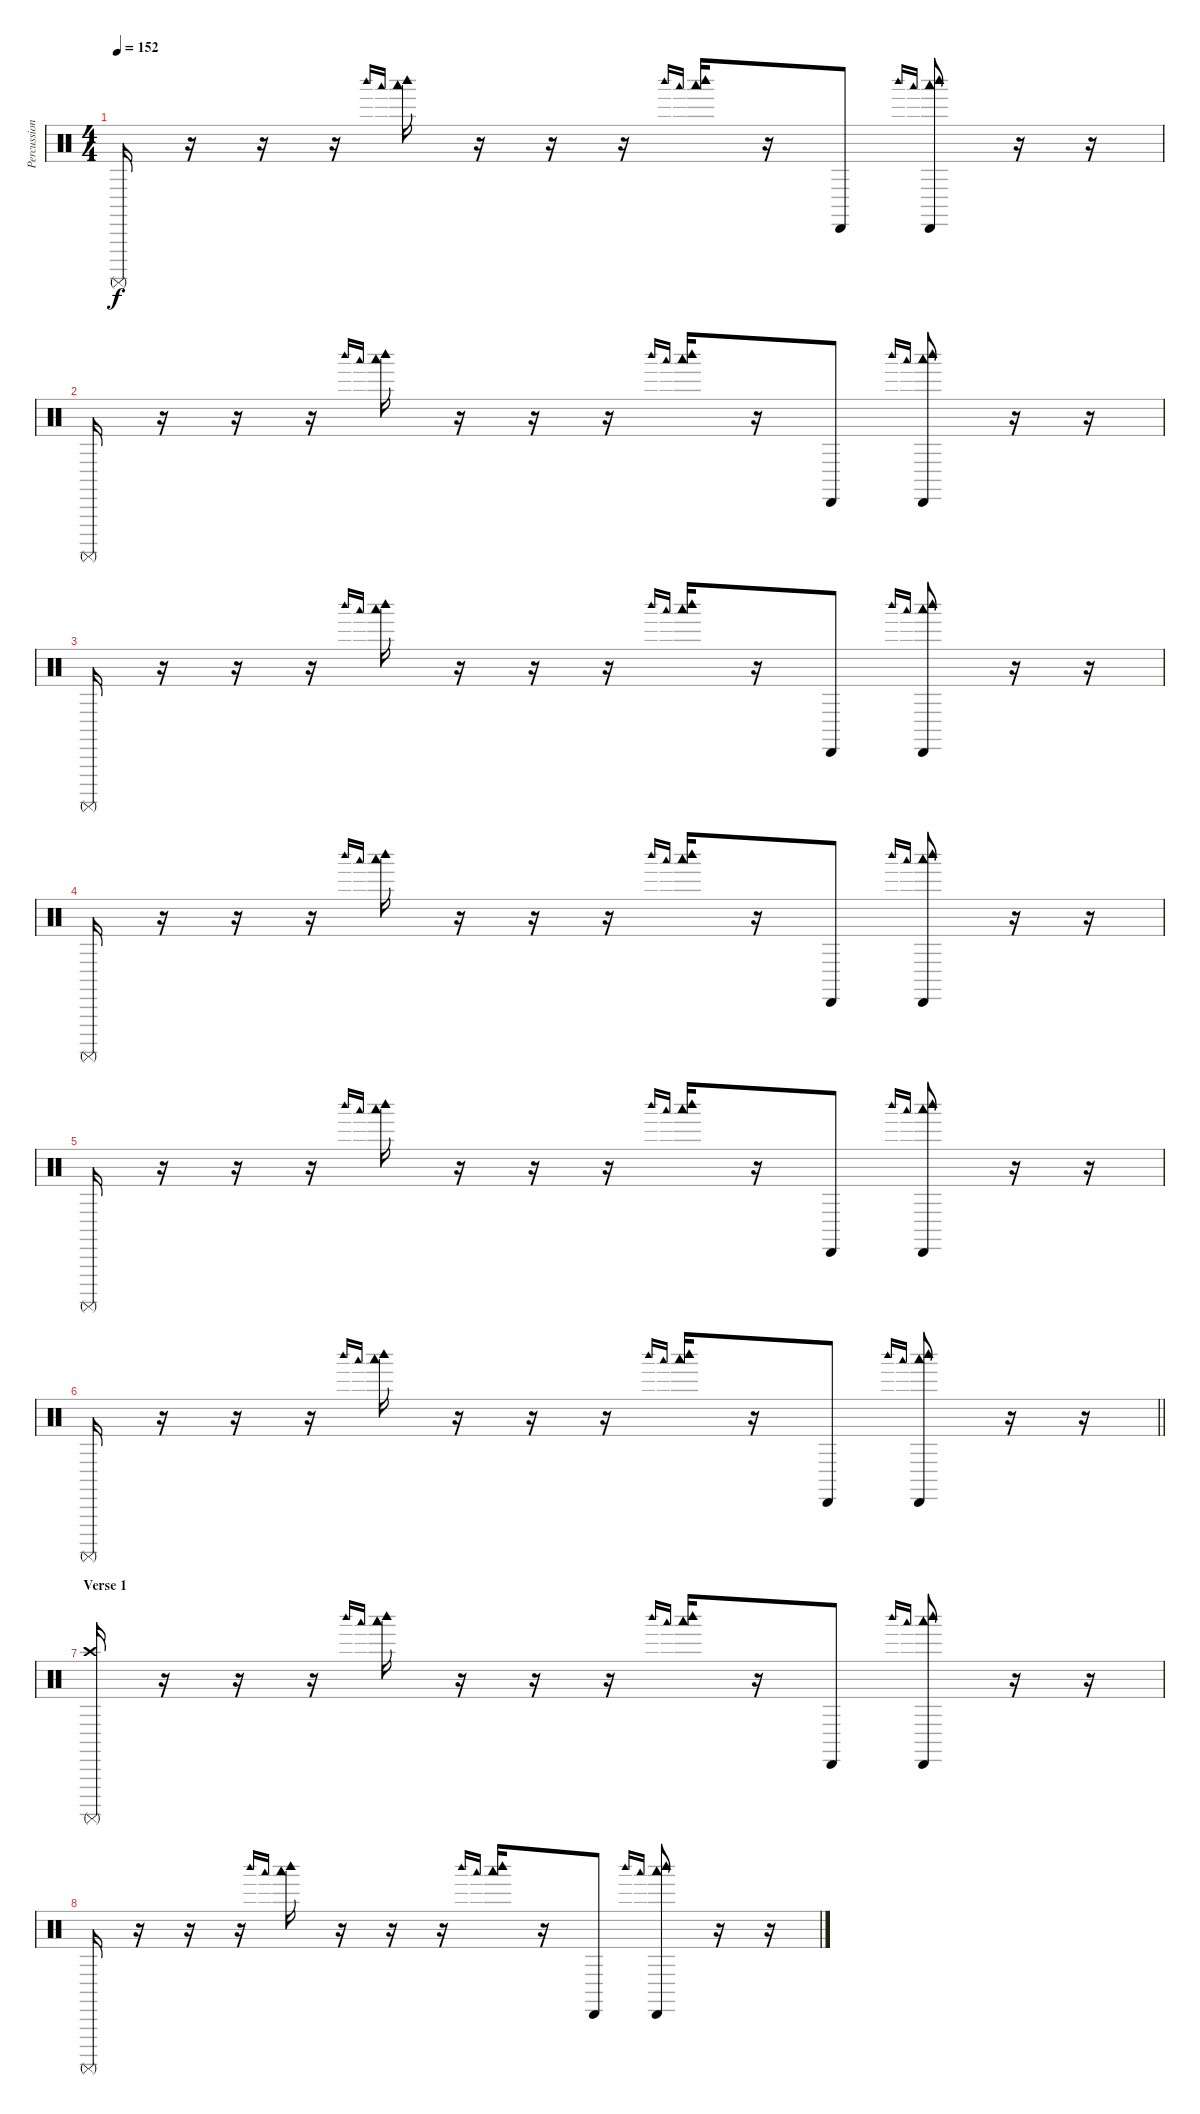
\track ("Percussion" "Percussion") {instrument percussion}
\staff {score}
\articulation defaults
\ts (4 4)
\tempo 152
\clef neutral
\ks c "Surdo (mute)".16{dy f}
r.16 r.16 r.16 "Woodblock high (hit)".16{gr onbeat} "Woodblock low (hit)".16{gr onbeat} ("Woodblock high (hit)" "Woodblock low (hit)").16 r.16 r.16 r.16 "Woodblock high (hit)".16{gr onbeat} "Woodblock low (hit)".16{gr onbeat} ("Woodblock high (hit)" "Woodblock low (hit)").16 r.16 "Cabasa (hit)".8 "Woodblock high (hit)".16{gr onbeat} "Woodblock low (hit)".16{gr onbeat} ("Cabasa (hit)" "Woodblock high (hit)" "Woodblock low (hit)").8 r.16 r.16 |
"Surdo (mute)".16 r.16 r.16 r.16 "Woodblock high (hit)".16{gr onbeat} "Woodblock low (hit)".16{gr onbeat} ("Woodblock high (hit)" "Woodblock low (hit)").16 r.16 r.16 r.16 "Woodblock high (hit)".16{gr onbeat} "Woodblock low (hit)".16{gr onbeat} ("Woodblock high (hit)" "Woodblock low (hit)").16 r.16 "Cabasa (hit)".8 "Woodblock high (hit)".16{gr onbeat} "Woodblock low (hit)".16{gr onbeat} ("Cabasa (hit)" "Woodblock high (hit)" "Woodblock low (hit)").8 r.16 r.16 |
"Surdo (mute)".16 r.16 r.16 r.16 "Woodblock high (hit)".16{gr onbeat} "Woodblock low (hit)".16{gr onbeat} ("Woodblock high (hit)" "Woodblock low (hit)").16 r.16 r.16 r.16 "Woodblock high (hit)".16{gr onbeat} "Woodblock low (hit)".16{gr onbeat} ("Woodblock high (hit)" "Woodblock low (hit)").16 r.16 "Cabasa (hit)".8 "Woodblock high (hit)".16{gr onbeat} "Woodblock low (hit)".16{gr onbeat} ("Cabasa (hit)" "Woodblock high (hit)" "Woodblock low (hit)").8 r.16 r.16 |
"Surdo (mute)".16 r.16 r.16 r.16 "Woodblock high (hit)".16{gr onbeat} "Woodblock low (hit)".16{gr onbeat} ("Woodblock high (hit)" "Woodblock low (hit)").16 r.16 r.16 r.16 "Woodblock high (hit)".16{gr onbeat} "Woodblock low (hit)".16{gr onbeat} ("Woodblock high (hit)" "Woodblock low (hit)").16 r.16 "Cabasa (hit)".8 "Woodblock high (hit)".16{gr onbeat} "Woodblock low (hit)".16{gr onbeat} ("Cabasa (hit)" "Woodblock high (hit)" "Woodblock low (hit)").8 r.16 r.16 |
"Surdo (mute)".16 r.16 r.16 r.16 "Woodblock high (hit)".16{gr onbeat} "Woodblock low (hit)".16{gr onbeat} ("Woodblock high (hit)" "Woodblock low (hit)").16 r.16 r.16 r.16 "Woodblock high (hit)".16{gr onbeat} "Woodblock low (hit)".16{gr onbeat} ("Woodblock high (hit)" "Woodblock low (hit)").16 r.16 "Cabasa (hit)".8 "Woodblock high (hit)".16{gr onbeat} "Woodblock low (hit)".16{gr onbeat} ("Cabasa (hit)" "Woodblock high (hit)" "Woodblock low (hit)").8 r.16 r.16 |
\barLineRight lightlight "Surdo (mute)".16
r.16 r.16 r.16 "Woodblock high (hit)".16{gr onbeat} "Woodblock low (hit)".16{gr onbeat} ("Woodblock high (hit)" "Woodblock low (hit)").16 r.16 r.16 r.16 "Woodblock high (hit)".16{gr onbeat} "Woodblock low (hit)".16{gr onbeat} ("Woodblock high (hit)" "Woodblock low (hit)").16 r.16 "Cabasa (hit)".8 "Woodblock high (hit)".16{gr onbeat} "Woodblock low (hit)".16{gr onbeat} ("Cabasa (hit)" "Woodblock high (hit)" "Woodblock low (hit)").8 r.16 r.16 |
\section ("" "Verse 1")
("Crash high (hit)" "Surdo (mute)").16 r.16 r.16 r.16 "Woodblock high (hit)".16{gr onbeat} "Woodblock low (hit)".16{gr onbeat} ("Woodblock high (hit)" "Woodblock low (hit)").16 r.16 r.16 r.16 "Woodblock high (hit)".16{gr onbeat} "Woodblock low (hit)".16{gr onbeat} ("Woodblock high (hit)" "Woodblock low (hit)").16 r.16 "Cabasa (hit)".8 "Woodblock high (hit)".16{gr onbeat} "Woodblock low (hit)".16{gr onbeat} ("Cabasa (hit)" "Woodblock high (hit)" "Woodblock low (hit)").8 r.16 r.16 |
"Surdo (mute)".16 r.16 r.16 r.16 "Woodblock high (hit)".16{gr onbeat} "Woodblock low (hit)".16{gr onbeat} ("Woodblock high (hit)" "Woodblock low (hit)").16 r.16 r.16 r.16 "Woodblock high (hit)".16{gr onbeat} "Woodblock low (hit)".16{gr onbeat} ("Woodblock high (hit)" "Woodblock low (hit)").16 r.16 "Cabasa (hit)".8 "Woodblock high (hit)".16{gr onbeat} "Woodblock low (hit)".16{gr onbeat} ("Cabasa (hit)" "Woodblock high (hit)" "Woodblock low (hit)").8 r.16 r.16
